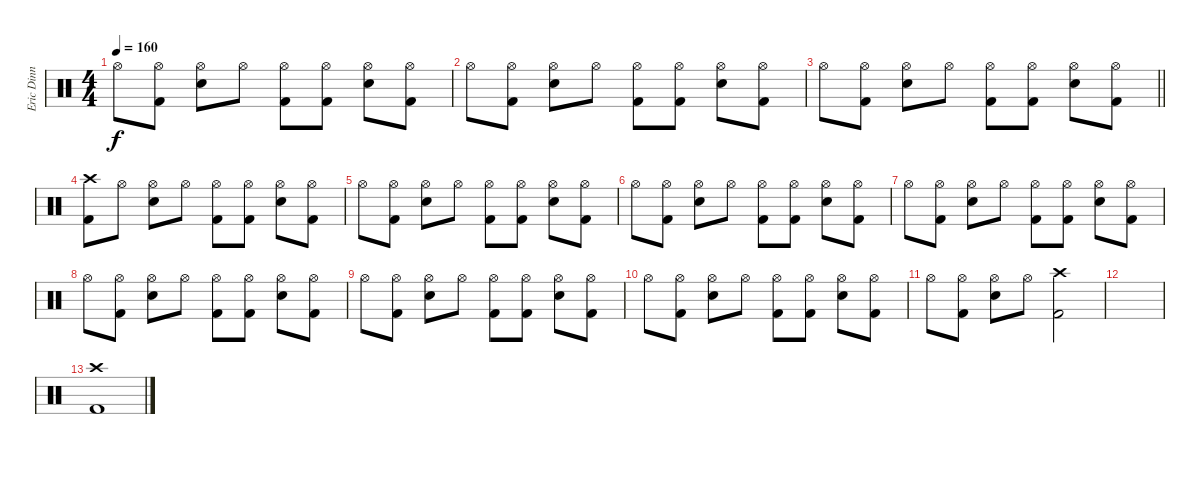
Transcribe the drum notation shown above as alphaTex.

\track ("Eric Dinn" "Eric Dinn") {instrument percussion}
\staff {score}
\articulation defaults
\ts (4 4)
\tempo 160
\clef neutral
\ks c "Hi-Hat (open)".8{dy f}
("Hi-Hat (open)" "Kick (hit) 2").8 ("Hi-Hat (open)" "Snare (hit) 2").8 "Hi-Hat (open)".8 ("Hi-Hat (open)" "Kick (hit) 2").8 ("Hi-Hat (open)" "Kick (hit) 2").8 ("Hi-Hat (open)" "Snare (hit) 2").8 ("Hi-Hat (open)" "Kick (hit) 2").8 |
"Hi-Hat (open)".8 ("Hi-Hat (open)" "Kick (hit) 2").8 ("Hi-Hat (open)" "Snare (hit) 2").8 "Hi-Hat (open)".8 ("Hi-Hat (open)" "Kick (hit) 2").8 ("Hi-Hat (open)" "Kick (hit) 2").8 ("Hi-Hat (open)" "Snare (hit) 2").8 ("Hi-Hat (open)" "Kick (hit) 2").8 |
\barLineRight lightlight "Hi-Hat (open)".8
("Hi-Hat (open)" "Kick (hit) 2").8 ("Hi-Hat (open)" "Snare (hit) 2").8 "Hi-Hat (open)".8 ("Hi-Hat (open)" "Kick (hit) 2").8 ("Hi-Hat (open)" "Kick (hit) 2").8 ("Hi-Hat (open)" "Snare (hit) 2").8 ("Hi-Hat (open)" "Kick (hit) 2").8 |
("Crash high (hit)" "Kick (hit) 2").8 "Hi-Hat (open)".8 ("Hi-Hat (open)" "Snare (hit) 2").8 "Hi-Hat (open)".8 ("Hi-Hat (open)" "Kick (hit) 2").8 ("Hi-Hat (open)" "Kick (hit) 2").8 ("Hi-Hat (open)" "Snare (hit) 2").8 ("Hi-Hat (open)" "Kick (hit) 2").8 |
"Hi-Hat (open)".8 ("Hi-Hat (open)" "Kick (hit) 2").8 ("Hi-Hat (open)" "Snare (hit) 2").8 "Hi-Hat (open)".8 ("Hi-Hat (open)" "Kick (hit) 2").8 ("Hi-Hat (open)" "Kick (hit) 2").8 ("Hi-Hat (open)" "Snare (hit) 2").8 ("Hi-Hat (open)" "Kick (hit) 2").8 |
"Hi-Hat (open)".8 ("Hi-Hat (open)" "Kick (hit) 2").8 ("Hi-Hat (open)" "Snare (hit) 2").8 "Hi-Hat (open)".8 ("Hi-Hat (open)" "Kick (hit) 2").8 ("Hi-Hat (open)" "Kick (hit) 2").8 ("Hi-Hat (open)" "Snare (hit) 2").8 ("Hi-Hat (open)" "Kick (hit) 2").8 |
"Hi-Hat (open)".8 ("Hi-Hat (open)" "Kick (hit) 2").8 ("Hi-Hat (open)" "Snare (hit) 2").8 "Hi-Hat (open)".8 ("Hi-Hat (open)" "Kick (hit) 2").8 ("Hi-Hat (open)" "Kick (hit) 2").8 ("Hi-Hat (open)" "Snare (hit) 2").8 ("Hi-Hat (open)" "Kick (hit) 2").8 |
"Hi-Hat (open)".8 ("Hi-Hat (open)" "Kick (hit) 2").8 ("Hi-Hat (open)" "Snare (hit) 2").8 "Hi-Hat (open)".8 ("Hi-Hat (open)" "Kick (hit) 2").8 ("Hi-Hat (open)" "Kick (hit) 2").8 ("Hi-Hat (open)" "Snare (hit) 2").8 ("Hi-Hat (open)" "Kick (hit) 2").8 |
"Hi-Hat (open)".8 ("Hi-Hat (open)" "Kick (hit) 2").8 ("Hi-Hat (open)" "Snare (hit) 2").8 "Hi-Hat (open)".8 ("Hi-Hat (open)" "Kick (hit) 2").8 ("Hi-Hat (open)" "Kick (hit) 2").8 ("Hi-Hat (open)" "Snare (hit) 2").8 ("Hi-Hat (open)" "Kick (hit) 2").8 |
"Hi-Hat (open)".8 ("Hi-Hat (open)" "Kick (hit) 2").8 ("Hi-Hat (open)" "Snare (hit) 2").8 "Hi-Hat (open)".8 ("Hi-Hat (open)" "Kick (hit) 2").8 ("Hi-Hat (open)" "Kick (hit) 2").8 ("Hi-Hat (open)" "Snare (hit) 2").8 ("Hi-Hat (open)" "Kick (hit) 2").8 |
"Hi-Hat (open)".8 ("Hi-Hat (open)" "Kick (hit) 2").8 ("Hi-Hat (open)" "Snare (hit) 2").8 "Hi-Hat (open)".8 ("Crash high (hit)" "Kick (hit) 2").2 |
|
("Crash high (hit)" "Kick (hit) 2").1
